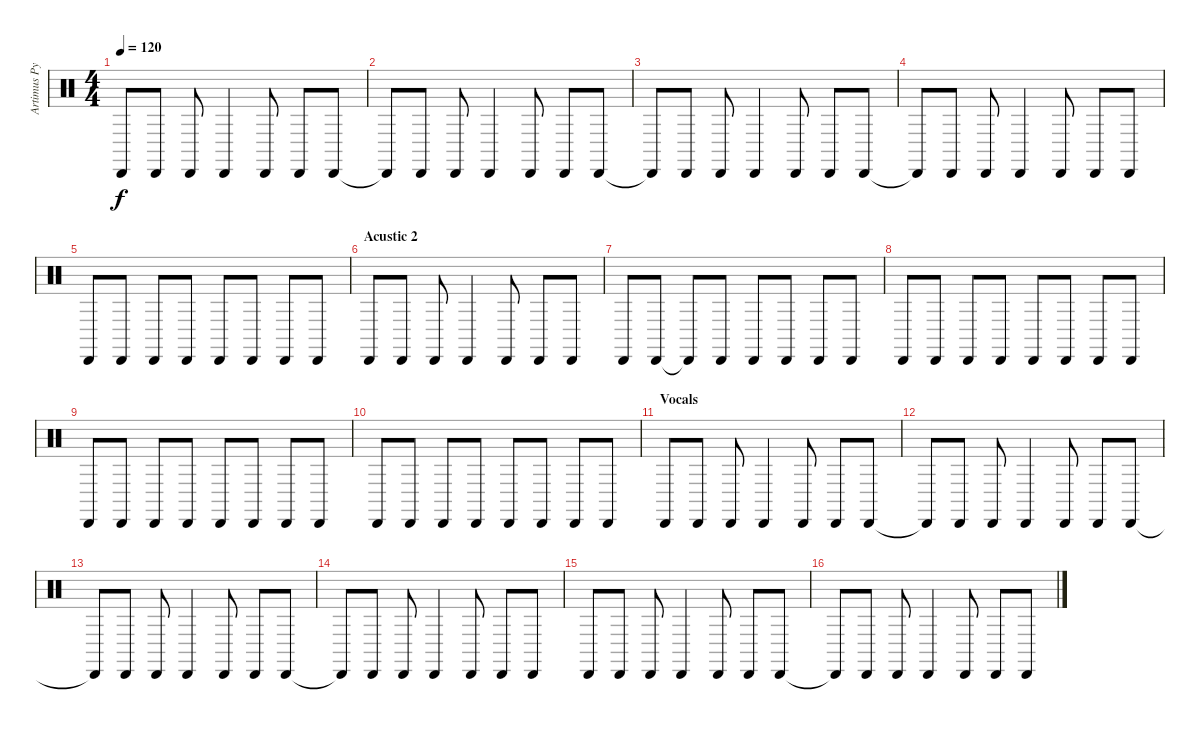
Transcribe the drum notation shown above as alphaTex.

\track ("Artimus Pyle" "Artimus Py") {instrument percussion}
\staff {score}
\articulation defaults
\ts (4 4)
\tempo 120
\clef neutral
\ks c "Cabasa (hit)".8{dy f} "Cabasa (hit)".8 "Cabasa (hit)".8 "Cabasa (hit)".4 "Cabasa (hit)".8 "Cabasa (hit)".8 "Cabasa (hit)".8
|
"Cabasa (hit)"{t}.8 "Cabasa (hit)".8 "Cabasa (hit)".8 "Cabasa (hit)".4 "Cabasa (hit)".8 "Cabasa (hit)".8 "Cabasa (hit)".8 |
"Cabasa (hit)"{t}.8 "Cabasa (hit)".8 "Cabasa (hit)".8 "Cabasa (hit)".4 "Cabasa (hit)".8 "Cabasa (hit)".8 "Cabasa (hit)".8 |
"Cabasa (hit)"{t}.8 "Cabasa (hit)".8 "Cabasa (hit)".8 "Cabasa (hit)".4 "Cabasa (hit)".8 "Cabasa (hit)".8 "Cabasa (hit)".8 |
"Cabasa (hit)".8 "Cabasa (hit)".8 "Cabasa (hit)".8 "Cabasa (hit)".8 "Cabasa (hit)".8 "Cabasa (hit)".8 "Cabasa (hit)".8 "Cabasa (hit)".8 |
\section ("" "Acustic 2")
"Cabasa (hit)".8 "Cabasa (hit)".8 "Cabasa (hit)".8 "Cabasa (hit)".4 "Cabasa (hit)".8 "Cabasa (hit)".8 "Cabasa (hit)".8 |
"Cabasa (hit)".8 "Cabasa (hit)".8 "Cabasa (hit)"{t}.8 "Cabasa (hit)".8 "Cabasa (hit)".8 "Cabasa (hit)".8 "Cabasa (hit)".8 "Cabasa (hit)".8 |
"Cabasa (hit)".8 "Cabasa (hit)".8 "Cabasa (hit)".8 "Cabasa (hit)".8 "Cabasa (hit)".8 "Cabasa (hit)".8 "Cabasa (hit)".8 "Cabasa (hit)".8 |
"Cabasa (hit)".8 "Cabasa (hit)".8 "Cabasa (hit)".8 "Cabasa (hit)".8 "Cabasa (hit)".8 "Cabasa (hit)".8 "Cabasa (hit)".8 "Cabasa (hit)".8 |
"Cabasa (hit)".8 "Cabasa (hit)".8 "Cabasa (hit)".8 "Cabasa (hit)".8 "Cabasa (hit)".8 "Cabasa (hit)".8 "Cabasa (hit)".8 "Cabasa (hit)".8 |
\section ("" "Vocals")
"Cabasa (hit)".8 "Cabasa (hit)".8 "Cabasa (hit)".8 "Cabasa (hit)".4 "Cabasa (hit)".8 "Cabasa (hit)".8 "Cabasa (hit)".8 |
"Cabasa (hit)"{t}.8 "Cabasa (hit)".8 "Cabasa (hit)".8 "Cabasa (hit)".4 "Cabasa (hit)".8 "Cabasa (hit)".8 "Cabasa (hit)".8 |
"Cabasa (hit)"{t}.8 "Cabasa (hit)".8 "Cabasa (hit)".8 "Cabasa (hit)".4 "Cabasa (hit)".8 "Cabasa (hit)".8 "Cabasa (hit)".8 |
"Cabasa (hit)"{t}.8 "Cabasa (hit)".8 "Cabasa (hit)".8 "Cabasa (hit)".4 "Cabasa (hit)".8 "Cabasa (hit)".8 "Cabasa (hit)".8 |
"Cabasa (hit)".8 "Cabasa (hit)".8 "Cabasa (hit)".8 "Cabasa (hit)".4 "Cabasa (hit)".8 "Cabasa (hit)".8 "Cabasa (hit)".8 |
"Cabasa (hit)"{t}.8 "Cabasa (hit)".8 "Cabasa (hit)".8 "Cabasa (hit)".4 "Cabasa (hit)".8 "Cabasa (hit)".8 "Cabasa (hit)".8
